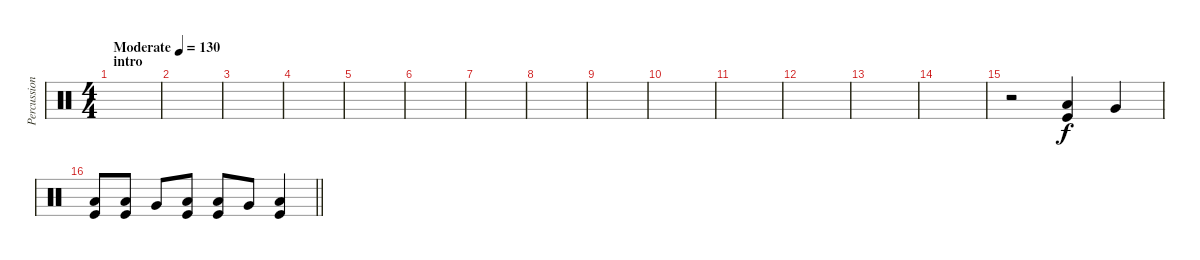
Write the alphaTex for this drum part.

\track ("Percussioni" "Percussion") {instrument percussion}
\staff {score}
\articulation defaults
\ts (4 4)
\section ("" "intro")
\tempo (130 "Moderate")
\clef neutral
\ks c
|
|
|
|
|
|
|
|
|
|
|
|
|
|
r.2 ("Low Floor Tom (hit)" "Kick (hit)").4 "Very Low Tom (hit)".4 |
\barLineRight lightlight
("Low Floor Tom (hit)" "Kick (hit)").8 ("Low Floor Tom (hit)" "Kick (hit)").8 "Very Low Tom (hit)".8 ("Low Floor Tom (hit)" "Kick (hit)").8 ("Low Floor Tom (hit)" "Kick (hit)").8 "Very Low Tom (hit)".8 ("Low Floor Tom (hit)" "Kick (hit)").4
